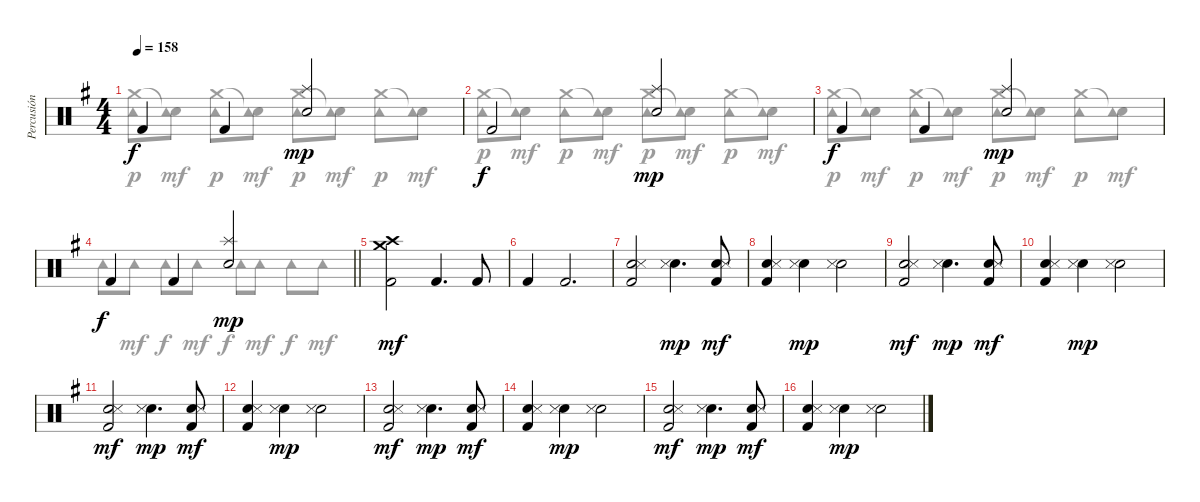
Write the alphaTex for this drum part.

\track ("Percusión" "Percusión") {instrument percussion}
\staff {score}
\articulation defaults
\voice
\ts (4 4)
\tempo 158
\clef neutral
\ks g "Kick (hit) 2".4{dy f} "Kick (hit) 2".4
("Splash (hit)" "Snare (hit) 2").2{dy mp} |
"Kick (hit) 2".2{dy f} ("Splash (hit)" "Snare (hit) 2").2{dy mp} |
"Kick (hit) 2".4{dy f} "Kick (hit) 2".4 ("Splash (hit)" "Snare (hit) 2").2{dy mp} |
\barLineRight lightlight "Kick (hit) 2".4{dy f} "Kick (hit) 2".4
("Splash (hit)" "Snare (hit) 2").2{dy mp} |
("Crash high (hit)" "Crash medium (hit)" "Kick (hit) 2").2{dy mf} "Kick (hit) 2".4{d} "Kick (hit) 2".8 |
"Kick (hit) 2".4 "Kick (hit) 2".2{d} |
("Hand Clap (hit)" "Snare (side stick) 3" "Kick (hit) 2").2 ("Hand Clap (hit)" "Snare (side stick) 3").4{d dy mp} ("Hand Clap (hit)" "Snare (side stick) 3" "Kick (hit) 2").8{dy mf} |
("Hand Clap (hit)" "Snare (side stick) 3" "Kick (hit) 2").4 ("Hand Clap (hit)" "Snare (side stick) 3").4{dy mp} ("Hand Clap (hit)" "Snare (side stick) 3").2 |
("Hand Clap (hit)" "Snare (side stick) 3" "Kick (hit) 2").2{dy mf} ("Hand Clap (hit)" "Snare (side stick) 3").4{d dy mp} ("Hand Clap (hit)" "Snare (side stick) 3" "Kick (hit) 2").8{dy mf} |
("Hand Clap (hit)" "Snare (side stick) 3" "Kick (hit) 2").4 ("Hand Clap (hit)" "Snare (side stick) 3").4{dy mp} ("Hand Clap (hit)" "Snare (side stick) 3").2 |
("Hand Clap (hit)" "Snare (side stick) 3" "Kick (hit) 2").2{dy mf} ("Hand Clap (hit)" "Snare (side stick) 3").4{d dy mp} ("Hand Clap (hit)" "Snare (side stick) 3" "Kick (hit) 2").8{dy mf} |
("Hand Clap (hit)" "Snare (side stick) 3" "Kick (hit) 2").4 ("Hand Clap (hit)" "Snare (side stick) 3").4{dy mp} ("Hand Clap (hit)" "Snare (side stick) 3").2 |
("Hand Clap (hit)" "Snare (side stick) 3" "Kick (hit) 2").2{dy mf} ("Hand Clap (hit)" "Snare (side stick) 3").4{d dy mp} ("Hand Clap (hit)" "Snare (side stick) 3" "Kick (hit) 2").8{dy mf} |
("Hand Clap (hit)" "Snare (side stick) 3" "Kick (hit) 2").4 ("Hand Clap (hit)" "Snare (side stick) 3").4{dy mp} ("Hand Clap (hit)" "Snare (side stick) 3").2 |
("Hand Clap (hit)" "Snare (side stick) 3" "Kick (hit) 2").2{dy mf} ("Hand Clap (hit)" "Snare (side stick) 3").4{d dy mp} ("Hand Clap (hit)" "Snare (side stick) 3" "Kick (hit) 2").8{dy mf} |
("Hand Clap (hit)" "Snare (side stick) 3" "Kick (hit) 2").4 ("Hand Clap (hit)" "Snare (side stick) 3").4{dy mp} ("Hand Clap (hit)" "Snare (side stick) 3").2
\voice
\clef neutral
\ottava regular
\simile none
\ks g
("Crash medium (hit)" "Tambourine (hit)").8{dy p} ("Snare (hit)"{t} "Tambourine (hit)").8{dy mf} ("Crash medium (hit)" "Tambourine (hit)").8{dy p} ("Snare (hit)"{t} "Tambourine (hit)").8{dy mf} ("Crash medium (hit)" "Tambourine (hit)").8{dy p} ("Snare (hit)"{t} "Tambourine (hit)").8{dy mf} ("Crash medium (hit)" "Tambourine (hit)").8{dy p} ("Snare (hit)"{t} "Tambourine (hit)").8{dy mf} |
("Crash medium (hit)" "Tambourine (hit)").8{dy p} ("Snare (hit)"{t} "Tambourine (hit)").8{dy mf} ("Crash medium (hit)" "Tambourine (hit)").8{dy p} ("Snare (hit)"{t} "Tambourine (hit)").8{dy mf} ("Crash medium (hit)" "Tambourine (hit)").8{dy p} ("Snare (hit)"{t} "Tambourine (hit)").8{dy mf} ("Crash medium (hit)" "Tambourine (hit)").8{dy p} ("Snare (hit)"{t} "Tambourine (hit)").8{dy mf} |
("Crash medium (hit)" "Tambourine (hit)").8{dy p} ("Snare (hit)"{t} "Tambourine (hit)").8{dy mf} ("Crash medium (hit)" "Tambourine (hit)").8{dy p} ("Snare (hit)"{t} "Tambourine (hit)").8{dy mf} ("Crash medium (hit)" "Tambourine (hit)").8{dy p} ("Snare (hit)"{t} "Tambourine (hit)").8{dy mf} ("Crash medium (hit)" "Tambourine (hit)").8{dy p} ("Snare (hit)"{t} "Tambourine (hit)").8{dy mf} |
\barLineRight lightlight "Tambourine (hit)".8{dy f} "Tambourine (hit)".8{dy mf} "Tambourine (hit)".8{dy f} "Tambourine (hit)".8{dy mf} "Tambourine (hit)".8{dy f} "Tambourine (hit)".8{dy mf} "Tambourine (hit)".8{dy f} "Tambourine (hit)".8{dy mf}
|
|
|
|
|
|
|
|
|
|
|
|
